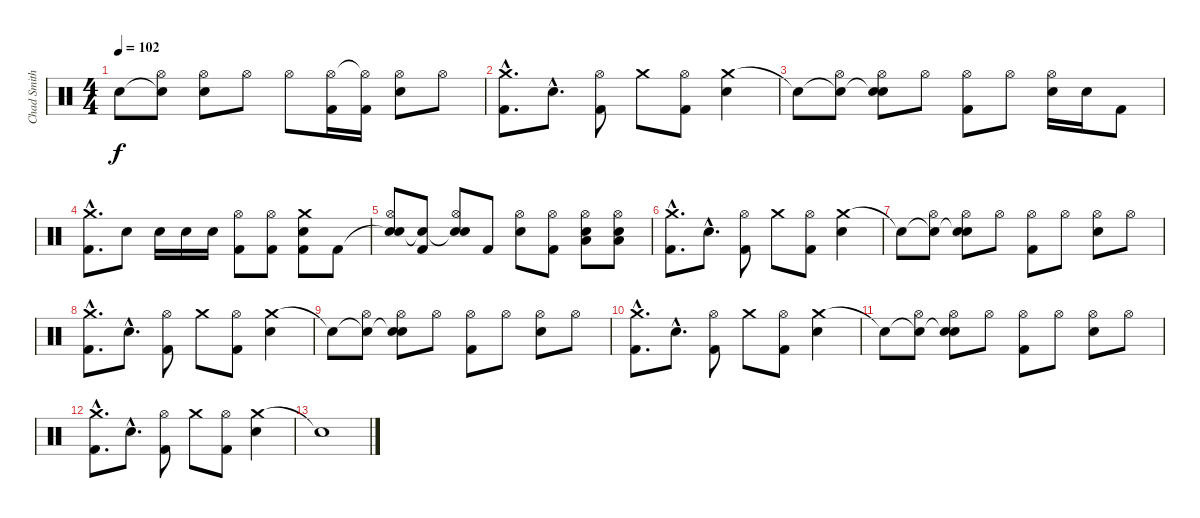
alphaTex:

\track ("Chad Smith (Batterie)" "Chad Smith") {instrument percussion}
\staff {score}
\articulation defaults
\ts (4 4)
\tempo 102
\clef neutral
\ks c "Snare (hit)"{t}.8{dy f}
("Snare (hit)"{t} "Hi-Hat (open)").8 ("Hi-Hat (open)" "Electric Snare (hit)").8 "Hi-Hat (open)".8 "Hi-Hat (open)".8 ("Hi-Hat (open)" "Kick (hit) 2").16 ("Hi-Hat (open)"{t} "Kick (hit) 2").16 ("Hi-Hat (open)" "Electric Snare (hit)").8 "Hi-Hat (open)".8 |
("Crash medium (hit)"{hac} "Kick (hit) 2"{hac}).8{d} "Electric Snare (hit)"{hac}.8{d} ("Hi-Hat (open)" "Kick (hit) 2").8 "Crash medium (hit)".8 ("Hi-Hat (open)" "Kick (hit) 2").8 ("Crash medium (hit)" "Electric Snare (hit)").4 |
"Snare (hit)"{t}.8 ("Snare (hit)"{t} "Hi-Hat (open)").8 ("Snare (hit)"{t} "Hi-Hat (open)" "Electric Snare (hit)").8 "Hi-Hat (open)".8 ("Hi-Hat (open)" "Kick (hit) 2").8 "Hi-Hat (open)".8 ("Hi-Hat (open)" "Electric Snare (hit)").16 "Electric Snare (hit)".16 "Kick (hit) 2".8 |
("Crash medium (hit)"{hac} "Kick (hit) 2"{hac}).8{d} "Electric Snare (hit)".8 "Electric Snare (hit)".16 "Electric Snare (hit)".16 "Electric Snare (hit)".16 ("Hi-Hat (open)" "Kick (hit) 2").8 ("Hi-Hat (open)" "Kick (hit) 2").8 ("Crash medium (hit)" "Electric Snare (hit)" "Kick (hit) 2").8 "Kick (hit) 2".8 |
("Snare (hit)"{t} "Hi-Hat (open)" "Electric Snare (hit)").8 ("Snare (hit)"{t} "Kick (hit) 2").8 ("Snare (hit)"{t} "Hi-Hat (open)" "Electric Snare (hit)").8 "Kick (hit) 2".8 ("Hi-Hat (open)" "Electric Snare (hit)").8 ("Hi-Hat (open)" "Kick (hit) 2").8 ("Hi-Hat (open)" "Low Tom (hit)" "Electric Snare (hit)").8 ("Hi-Hat (open)" "Low Tom (hit)" "Electric Snare (hit)").8 |
("Crash medium (hit)"{hac} "Kick (hit) 2"{hac}).8{d} "Electric Snare (hit)"{hac}.8{d} ("Hi-Hat (open)" "Kick (hit) 2").8 "Crash medium (hit)".8 ("Hi-Hat (open)" "Kick (hit) 2").8 ("Crash medium (hit)" "Electric Snare (hit)").4 |
"Snare (hit)"{t}.8 ("Snare (hit)"{t} "Hi-Hat (open)").8 ("Snare (hit)"{t} "Hi-Hat (open)" "Electric Snare (hit)").8 "Hi-Hat (open)".8 ("Hi-Hat (open)" "Kick (hit) 2").8 "Hi-Hat (open)".8 ("Hi-Hat (open)" "Electric Snare (hit)").8 "Hi-Hat (open)".8 |
("Crash medium (hit)"{hac} "Kick (hit) 2"{hac}).8{d} "Electric Snare (hit)"{hac}.8{d} ("Hi-Hat (open)" "Kick (hit) 2").8 "Crash medium (hit)".8 ("Hi-Hat (open)" "Kick (hit) 2").8 ("Crash medium (hit)" "Electric Snare (hit)").4 |
"Snare (hit)"{t}.8 ("Snare (hit)"{t} "Hi-Hat (open)").8 ("Snare (hit)"{t} "Hi-Hat (open)" "Electric Snare (hit)").8 "Hi-Hat (open)".8 ("Hi-Hat (open)" "Kick (hit) 2").8 "Hi-Hat (open)".8 ("Hi-Hat (open)" "Electric Snare (hit)").8 "Hi-Hat (open)".8 |
("Crash medium (hit)"{hac} "Kick (hit) 2"{hac}).8{d} "Electric Snare (hit)"{hac}.8{d} ("Hi-Hat (open)" "Kick (hit) 2").8 "Crash medium (hit)".8 ("Hi-Hat (open)" "Kick (hit) 2").8 ("Crash medium (hit)" "Electric Snare (hit)").4 |
"Snare (hit)"{t}.8 ("Snare (hit)"{t} "Hi-Hat (open)").8 ("Snare (hit)"{t} "Hi-Hat (open)" "Electric Snare (hit)").8 "Hi-Hat (open)".8 ("Hi-Hat (open)" "Kick (hit) 2").8 "Hi-Hat (open)".8 ("Hi-Hat (open)" "Electric Snare (hit)").8 "Hi-Hat (open)".8 |
("Crash medium (hit)"{hac} "Kick (hit) 2"{hac}).8{d} "Electric Snare (hit)"{hac}.8{d} ("Hi-Hat (open)" "Kick (hit) 2").8 "Crash medium (hit)".8 ("Hi-Hat (open)" "Kick (hit) 2").8 ("Crash medium (hit)" "Electric Snare (hit)").4 |
"Snare (hit)"{t}.1
